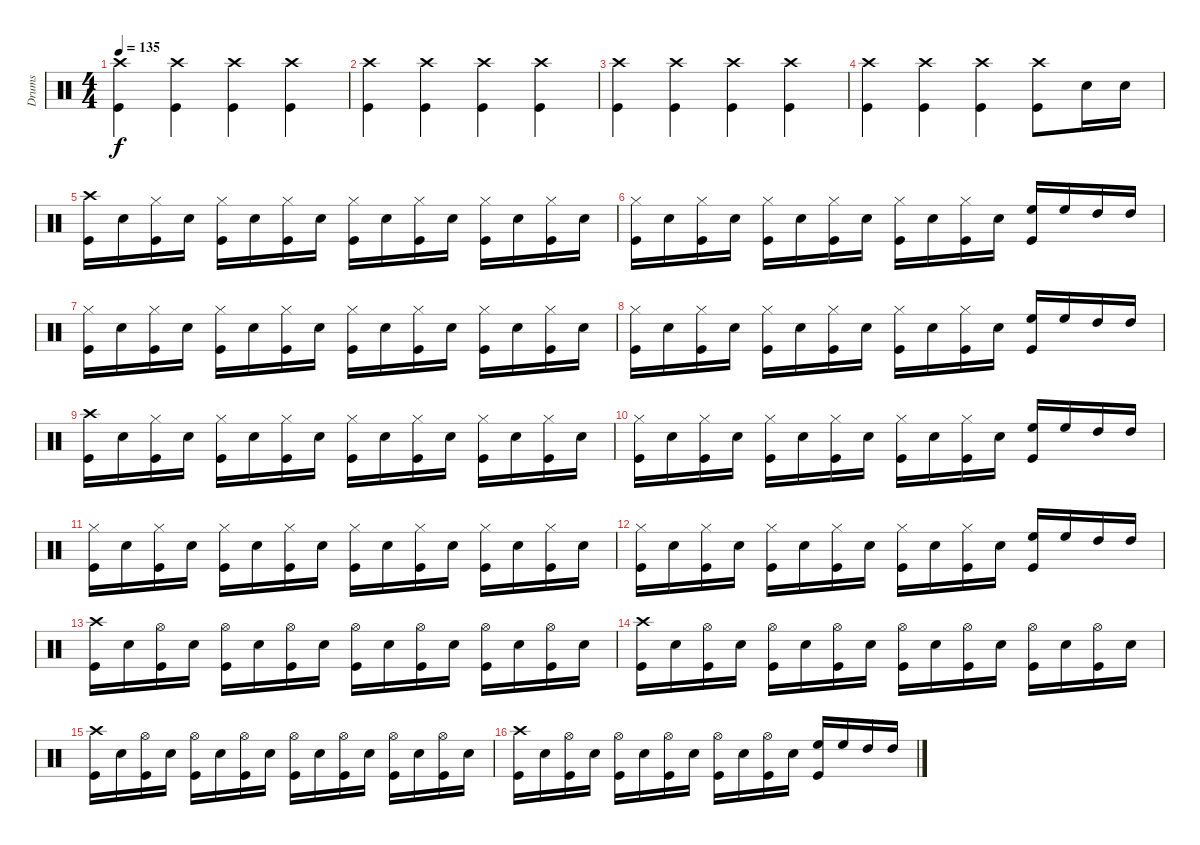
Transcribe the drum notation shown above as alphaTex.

\track ("Drums" "Drums") {instrument percussion}
\staff {score}
\articulation defaults
\ts (4 4)
\tempo 135
\clef neutral
\ks c
("Crash high (hit)" "Kick (hit)").4{dy f} ("Crash high (hit)" "Kick (hit)").4 ("Crash high (hit)" "Kick (hit)").4 ("Crash high (hit)" "Kick (hit)").4 |
("Crash high (hit)" "Kick (hit)").4 ("Crash high (hit)" "Kick (hit)").4 ("Crash high (hit)" "Kick (hit)").4 ("Crash high (hit)" "Kick (hit)").4 |
("Crash high (hit)" "Kick (hit)").4 ("Crash high (hit)" "Kick (hit)").4 ("Crash high (hit)" "Kick (hit)").4 ("Crash high (hit)" "Kick (hit)").4 |
("Crash high (hit)" "Kick (hit)").4 ("Crash high (hit)" "Kick (hit)").4 ("Crash high (hit)" "Kick (hit)").4 ("Crash high (hit)" "Kick (hit)").8 "Snare (hit) 2".16 "Snare (hit) 2".16 |
("Crash high (hit)" "Kick (hit)").16 "Snare (hit) 2".16 ("Hi-Hat (closed)" "Kick (hit)").16 "Snare (hit) 2".16 ("Hi-Hat (closed)" "Kick (hit)").16 "Snare (hit) 2".16 ("Hi-Hat (closed)" "Kick (hit)").16 "Snare (hit) 2".16 ("Hi-Hat (closed)" "Kick (hit)").16 "Snare (hit) 2".16 ("Hi-Hat (closed)" "Kick (hit)").16 "Snare (hit) 2".16 ("Hi-Hat (closed)" "Kick (hit)").16 "Snare (hit) 2".16 ("Hi-Hat (closed)" "Kick (hit)").16 "Snare (hit) 2".16 |
("Hi-Hat (closed)" "Kick (hit)").16 "Snare (hit) 2".16 ("Hi-Hat (closed)" "Kick (hit)").16 "Snare (hit) 2".16 ("Hi-Hat (closed)" "Kick (hit)").16 "Snare (hit) 2".16 ("Hi-Hat (closed)" "Kick (hit)").16 "Snare (hit) 2".16 ("Hi-Hat (closed)" "Kick (hit)").16 "Snare (hit) 2".16 ("Hi-Hat (closed)" "Kick (hit)").16 "Snare (hit) 2".16 ("High Floor Tom (hit)" "Kick (hit)").16 "High Floor Tom (hit)".16 "High Tom (hit)".16 "High Tom (hit)".16 |
("Hi-Hat (closed)" "Kick (hit)").16 "Snare (hit) 2".16 ("Hi-Hat (closed)" "Kick (hit)").16 "Snare (hit) 2".16 ("Hi-Hat (closed)" "Kick (hit)").16 "Snare (hit) 2".16 ("Hi-Hat (closed)" "Kick (hit)").16 "Snare (hit) 2".16 ("Hi-Hat (closed)" "Kick (hit)").16 "Snare (hit) 2".16 ("Hi-Hat (closed)" "Kick (hit)").16 "Snare (hit) 2".16 ("Hi-Hat (closed)" "Kick (hit)").16 "Snare (hit) 2".16 ("Hi-Hat (closed)" "Kick (hit)").16 "Snare (hit) 2".16 |
("Hi-Hat (closed)" "Kick (hit)").16 "Snare (hit) 2".16 ("Hi-Hat (closed)" "Kick (hit)").16 "Snare (hit) 2".16 ("Hi-Hat (closed)" "Kick (hit)").16 "Snare (hit) 2".16 ("Hi-Hat (closed)" "Kick (hit)").16 "Snare (hit) 2".16 ("Hi-Hat (closed)" "Kick (hit)").16 "Snare (hit) 2".16 ("Hi-Hat (closed)" "Kick (hit)").16 "Snare (hit) 2".16 ("High Floor Tom (hit)" "Kick (hit)").16 "High Floor Tom (hit)".16 "High Tom (hit)".16 "High Tom (hit)".16 |
("Crash high (hit)" "Kick (hit)").16 "Snare (hit) 2".16 ("Hi-Hat (closed)" "Kick (hit)").16 "Snare (hit) 2".16 ("Hi-Hat (closed)" "Kick (hit)").16 "Snare (hit) 2".16 ("Hi-Hat (closed)" "Kick (hit)").16 "Snare (hit) 2".16 ("Hi-Hat (closed)" "Kick (hit)").16 "Snare (hit) 2".16 ("Hi-Hat (closed)" "Kick (hit)").16 "Snare (hit) 2".16 ("Hi-Hat (closed)" "Kick (hit)").16 "Snare (hit) 2".16 ("Hi-Hat (closed)" "Kick (hit)").16 "Snare (hit) 2".16 |
("Hi-Hat (closed)" "Kick (hit)").16 "Snare (hit) 2".16 ("Hi-Hat (closed)" "Kick (hit)").16 "Snare (hit) 2".16 ("Hi-Hat (closed)" "Kick (hit)").16 "Snare (hit) 2".16 ("Hi-Hat (closed)" "Kick (hit)").16 "Snare (hit) 2".16 ("Hi-Hat (closed)" "Kick (hit)").16 "Snare (hit) 2".16 ("Hi-Hat (closed)" "Kick (hit)").16 "Snare (hit) 2".16 ("High Floor Tom (hit)" "Kick (hit)").16 "High Floor Tom (hit)".16 "High Tom (hit)".16 "High Tom (hit)".16 |
("Hi-Hat (closed)" "Kick (hit)").16 "Snare (hit) 2".16 ("Hi-Hat (closed)" "Kick (hit)").16 "Snare (hit) 2".16 ("Hi-Hat (closed)" "Kick (hit)").16 "Snare (hit) 2".16 ("Hi-Hat (closed)" "Kick (hit)").16 "Snare (hit) 2".16 ("Hi-Hat (closed)" "Kick (hit)").16 "Snare (hit) 2".16 ("Hi-Hat (closed)" "Kick (hit)").16 "Snare (hit) 2".16 ("Hi-Hat (closed)" "Kick (hit)").16 "Snare (hit) 2".16 ("Hi-Hat (closed)" "Kick (hit)").16 "Snare (hit) 2".16 |
("Hi-Hat (closed)" "Kick (hit)").16 "Snare (hit) 2".16 ("Hi-Hat (closed)" "Kick (hit)").16 "Snare (hit) 2".16 ("Hi-Hat (closed)" "Kick (hit)").16 "Snare (hit) 2".16 ("Hi-Hat (closed)" "Kick (hit)").16 "Snare (hit) 2".16 ("Hi-Hat (closed)" "Kick (hit)").16 "Snare (hit) 2".16 ("Hi-Hat (closed)" "Kick (hit)").16 "Snare (hit) 2".16 ("High Floor Tom (hit)" "Kick (hit)").16 "High Floor Tom (hit)".16 "High Tom (hit)".16 "High Tom (hit)".16 |
("Crash high (hit)" "Kick (hit)").16 "Snare (hit) 2".16 ("Hi-Hat (open)" "Kick (hit)").16 "Snare (hit) 2".16 ("Hi-Hat (open)" "Kick (hit)").16 "Snare (hit) 2".16 ("Hi-Hat (open)" "Kick (hit)").16 "Snare (hit) 2".16 ("Hi-Hat (open)" "Kick (hit)").16 "Snare (hit) 2".16 ("Hi-Hat (open)" "Kick (hit)").16 "Snare (hit) 2".16 ("Hi-Hat (open)" "Kick (hit)").16 "Snare (hit) 2".16 ("Hi-Hat (open)" "Kick (hit)").16 "Snare (hit) 2".16 |
("Crash high (hit)" "Kick (hit)").16 "Snare (hit) 2".16 ("Hi-Hat (open)" "Kick (hit)").16 "Snare (hit) 2".16 ("Hi-Hat (open)" "Kick (hit)").16 "Snare (hit) 2".16 ("Hi-Hat (open)" "Kick (hit)").16 "Snare (hit) 2".16 ("Hi-Hat (open)" "Kick (hit)").16 "Snare (hit) 2".16 ("Hi-Hat (open)" "Kick (hit)").16 "Snare (hit) 2".16 ("Hi-Hat (open)" "Kick (hit)").16 "Snare (hit) 2".16 ("Hi-Hat (open)" "Kick (hit)").16 "Snare (hit) 2".16 |
("Crash high (hit)" "Kick (hit)").16 "Snare (hit) 2".16 ("Hi-Hat (open)" "Kick (hit)").16 "Snare (hit) 2".16 ("Hi-Hat (open)" "Kick (hit)").16 "Snare (hit) 2".16 ("Hi-Hat (open)" "Kick (hit)").16 "Snare (hit) 2".16 ("Hi-Hat (open)" "Kick (hit)").16 "Snare (hit) 2".16 ("Hi-Hat (open)" "Kick (hit)").16 "Snare (hit) 2".16 ("Hi-Hat (open)" "Kick (hit)").16 "Snare (hit) 2".16 ("Hi-Hat (open)" "Kick (hit)").16 "Snare (hit) 2".16 |
("Crash high (hit)" "Kick (hit)").16 "Snare (hit) 2".16 ("Hi-Hat (open)" "Kick (hit)").16 "Snare (hit) 2".16 ("Hi-Hat (open)" "Kick (hit)").16 "Snare (hit) 2".16 ("Hi-Hat (open)" "Kick (hit)").16 "Snare (hit) 2".16 ("Hi-Hat (open)" "Kick (hit)").16 "Snare (hit) 2".16 ("Hi-Hat (open)" "Kick (hit)").16 "Snare (hit) 2".16 ("High Floor Tom (hit)" "Kick (hit)").16 "High Floor Tom (hit)".16 "High Tom (hit)".16 "High Tom (hit)".16
